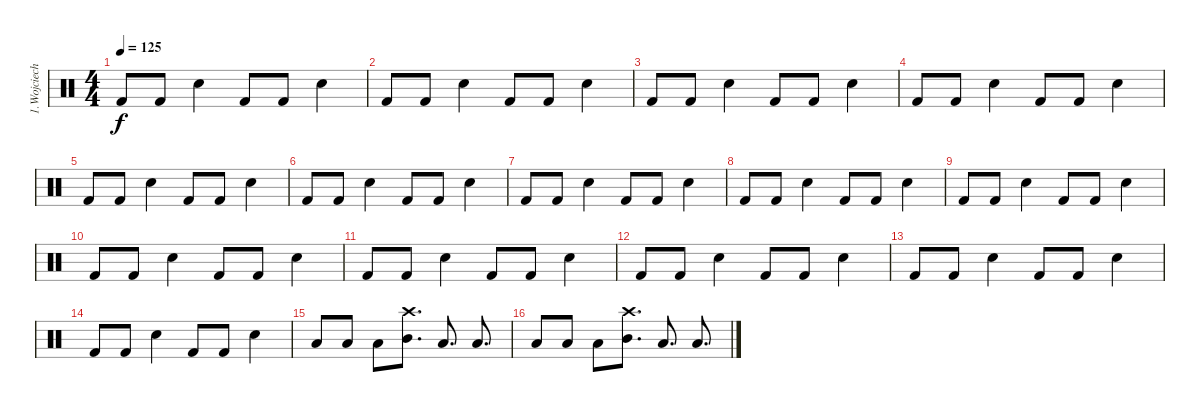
\track ("1.Wojciech Kuderski (\"Lala\")" "1.Wojciech") {instrument percussion}
\staff {score}
\articulation defaults
\ts (4 4)
\tempo 125
\clef neutral
\ks c "Kick (hit) 2".8{dy f} "Kick (hit) 2".8 "Electric Snare (hit)".4 "Kick (hit) 2".8 "Kick (hit) 2".8 "Electric Snare (hit)".4
|
"Kick (hit) 2".8 "Kick (hit) 2".8 "Electric Snare (hit)".4 "Kick (hit) 2".8 "Kick (hit) 2".8 "Electric Snare (hit)".4 |
"Kick (hit) 2".8 "Kick (hit) 2".8 "Electric Snare (hit)".4 "Kick (hit) 2".8 "Kick (hit) 2".8 "Electric Snare (hit)".4 |
"Kick (hit) 2".8 "Kick (hit) 2".8 "Electric Snare (hit)".4 "Kick (hit) 2".8 "Kick (hit) 2".8 "Electric Snare (hit)".4 |
"Kick (hit) 2".8 "Kick (hit) 2".8 "Electric Snare (hit)".4 "Kick (hit) 2".8 "Kick (hit) 2".8 "Electric Snare (hit)".4 |
"Kick (hit) 2".8 "Kick (hit) 2".8 "Electric Snare (hit)".4 "Kick (hit) 2".8 "Kick (hit) 2".8 "Electric Snare (hit)".4 |
"Kick (hit) 2".8 "Kick (hit) 2".8 "Electric Snare (hit)".4 "Kick (hit) 2".8 "Kick (hit) 2".8 "Electric Snare (hit)".4 |
"Kick (hit) 2".8 "Kick (hit) 2".8 "Electric Snare (hit)".4 "Kick (hit) 2".8 "Kick (hit) 2".8 "Electric Snare (hit)".4 |
"Kick (hit) 2".8 "Kick (hit) 2".8 "Electric Snare (hit)".4 "Kick (hit) 2".8 "Kick (hit) 2".8 "Electric Snare (hit)".4 |
"Kick (hit) 2".8 "Kick (hit) 2".8 "Electric Snare (hit)".4 "Kick (hit) 2".8 "Kick (hit) 2".8 "Electric Snare (hit)".4 |
"Kick (hit) 2".8 "Kick (hit) 2".8 "Electric Snare (hit)".4 "Kick (hit) 2".8 "Kick (hit) 2".8 "Electric Snare (hit)".4 |
"Kick (hit) 2".8 "Kick (hit) 2".8 "Electric Snare (hit)".4 "Kick (hit) 2".8 "Kick (hit) 2".8 "Electric Snare (hit)".4 |
"Kick (hit) 2".8 "Kick (hit) 2".8 "Electric Snare (hit)".4 "Kick (hit) 2".8 "Kick (hit) 2".8 "Electric Snare (hit)".4 |
"Kick (hit) 2".8 "Kick (hit) 2".8 "Electric Snare (hit)".4 "Kick (hit) 2".8 "Kick (hit) 2".8 "Electric Snare (hit)".4 |
"Low Tom (hit)".8 "Low Tom (hit)".8 "Low Tom (hit)".8 ("Mid Tom (hit)" "Crash high (hit)").8{d} "Low Tom (hit)".8{d} "Low Tom (hit)".8{d} |
"Low Tom (hit)".8 "Low Tom (hit)".8 "Low Tom (hit)".8 ("Mid Tom (hit)" "Crash high (hit)").8{d} "Low Tom (hit)".8{d} "Low Tom (hit)".8{d}
